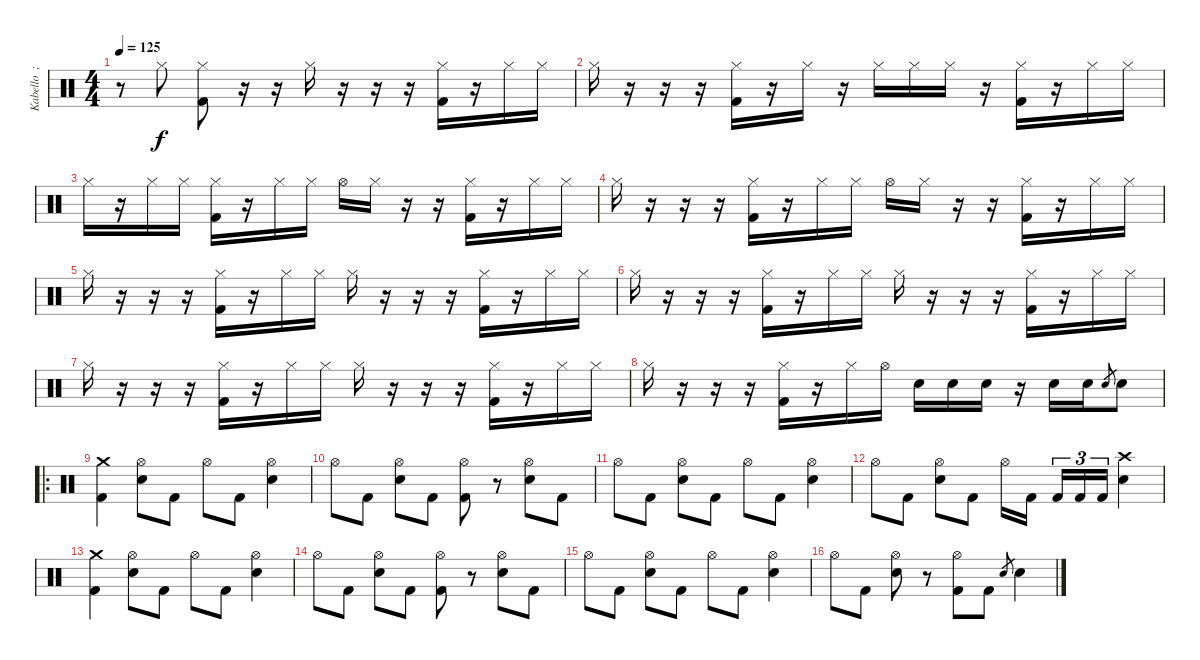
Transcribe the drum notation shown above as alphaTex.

\track ("Kabello  ;-)" "Kabello  ;") {instrument percussion}
\staff {score}
\articulation defaults
\ts (4 4)
\tempo 125
\clef neutral
\ks c
r.8{dy f} "Hi-Hat (closed)".8 ("Hi-Hat (closed)" "Kick (hit) 2").8 r.16 r.16 "Hi-Hat (closed)".16 r.16 r.16 r.16 ("Hi-Hat (closed)" "Kick (hit) 2").16 r.16 "Hi-Hat (closed)".16 "Hi-Hat (closed)".16 |
"Hi-Hat (closed)".16 r.16 r.16 r.16 ("Hi-Hat (closed)" "Kick (hit) 2").16 r.16 "Hi-Hat (closed)".16 r.16 "Hi-Hat (closed)".16 "Hi-Hat (closed)".16 "Hi-Hat (closed)".16 r.16 ("Hi-Hat (closed)" "Kick (hit) 2").16 r.16 "Hi-Hat (closed)".16 "Hi-Hat (closed)".16 |
"Hi-Hat (closed)".16 r.16 "Hi-Hat (closed)".16 "Hi-Hat (closed)".16 ("Hi-Hat (closed)" "Kick (hit) 2").16 r.16 "Hi-Hat (closed)".16 "Hi-Hat (closed)".16 "Hi-Hat (open)".16 "Hi-Hat (closed)".16 r.16 r.16 ("Hi-Hat (closed)" "Kick (hit) 2").16 r.16 "Hi-Hat (closed)".16 "Hi-Hat (closed)".16 |
"Hi-Hat (closed)".16 r.16 r.16 r.16 ("Hi-Hat (closed)" "Kick (hit) 2").16 r.16 "Hi-Hat (closed)".16 "Hi-Hat (closed)".16 "Hi-Hat (open)".16 "Hi-Hat (closed)".16 r.16 r.16 ("Hi-Hat (closed)" "Kick (hit) 2").16 r.16 "Hi-Hat (closed)".16 "Hi-Hat (closed)".16 |
"Hi-Hat (closed)".16 r.16 r.16 r.16 ("Hi-Hat (closed)" "Kick (hit) 2").16 r.16 "Hi-Hat (closed)".16 "Hi-Hat (closed)".16 "Hi-Hat (closed)".16 r.16 r.16 r.16 ("Hi-Hat (closed)" "Kick (hit) 2").16 r.16 "Hi-Hat (closed)".16 "Hi-Hat (closed)".16 |
"Hi-Hat (closed)".16 r.16 r.16 r.16 ("Hi-Hat (closed)" "Kick (hit) 2").16 r.16 "Hi-Hat (closed)".16 "Hi-Hat (closed)".16 "Hi-Hat (closed)".16 r.16 r.16 r.16 ("Hi-Hat (closed)" "Kick (hit) 2").16 r.16 "Hi-Hat (closed)".16 "Hi-Hat (closed)".16 |
"Hi-Hat (closed)".16 r.16 r.16 r.16 ("Hi-Hat (closed)" "Kick (hit) 2").16 r.16 "Hi-Hat (closed)".16 "Hi-Hat (closed)".16 "Hi-Hat (closed)".16 r.16 r.16 r.16 ("Hi-Hat (closed)" "Kick (hit) 2").16 r.16 "Hi-Hat (closed)".16 "Hi-Hat (closed)".16 |
"Hi-Hat (closed)".16 r.16 r.16 r.16 ("Hi-Hat (closed)" "Kick (hit) 2").16 r.16 "Hi-Hat (closed)".16 "Hi-Hat (open)".16 "Electric Snare (hit)".16 "Electric Snare (hit)".16 "Electric Snare (hit)".16 r.16 "Electric Snare (hit)".16 "Electric Snare (hit)".16 "Electric Snare (hit)".8{gr} "Electric Snare (hit)".8 |
\ro
("Crash medium (hit)" "Kick (hit) 2").4 ("Hi-Hat (open)" "Electric Snare (hit)").8 "Kick (hit) 2".8 "Hi-Hat (open)".8 "Kick (hit) 2".8 ("Hi-Hat (open)" "Electric Snare (hit)").4 |
"Hi-Hat (open)".8 "Kick (hit) 2".8 ("Hi-Hat (open)" "Electric Snare (hit)").8 "Kick (hit) 2".8 ("Hi-Hat (open)" "Kick (hit) 2").8 r.8 ("Hi-Hat (open)" "Electric Snare (hit)").8 "Kick (hit) 2".8 |
"Hi-Hat (open)".8 "Kick (hit) 2".8 ("Hi-Hat (open)" "Electric Snare (hit)").8 "Kick (hit) 2".8 "Hi-Hat (open)".8 "Kick (hit) 2".8 ("Hi-Hat (open)" "Electric Snare (hit)").4 |
"Hi-Hat (open)".8 "Kick (hit) 2".8 ("Hi-Hat (open)" "Electric Snare (hit)").8 "Kick (hit) 2".8 "Hi-Hat (open)".16 "Kick (hit) 2".16 "Kick (hit) 2".16{tu (3 2)} "Kick (hit) 2".16{tu (3 2)} "Kick (hit) 2".16{tu (3 2)} ("Crash high (hit)" "Electric Snare (hit)").4 |
("Crash medium (hit)" "Kick (hit) 2").4 ("Hi-Hat (open)" "Electric Snare (hit)").8 "Kick (hit) 2".8 "Hi-Hat (open)".8 "Kick (hit) 2".8 ("Hi-Hat (open)" "Electric Snare (hit)").4 |
"Hi-Hat (open)".8 "Kick (hit) 2".8 ("Hi-Hat (open)" "Electric Snare (hit)").8 "Kick (hit) 2".8 ("Hi-Hat (open)" "Kick (hit) 2").8 r.8 ("Hi-Hat (open)" "Electric Snare (hit)").8 "Kick (hit) 2".8 |
"Hi-Hat (open)".8 "Kick (hit) 2".8 ("Hi-Hat (open)" "Electric Snare (hit)").8 "Kick (hit) 2".8 "Hi-Hat (open)".8 "Kick (hit) 2".8 ("Hi-Hat (open)" "Electric Snare (hit)").4 |
"Hi-Hat (open)".8 "Kick (hit) 2".8 ("Hi-Hat (open)" "Electric Snare (hit)").8 r.8 ("Hi-Hat (open)" "Kick (hit) 2").8 "Kick (hit) 2".8 "Electric Snare (hit)".8{gr} "Electric Snare (hit)".4
